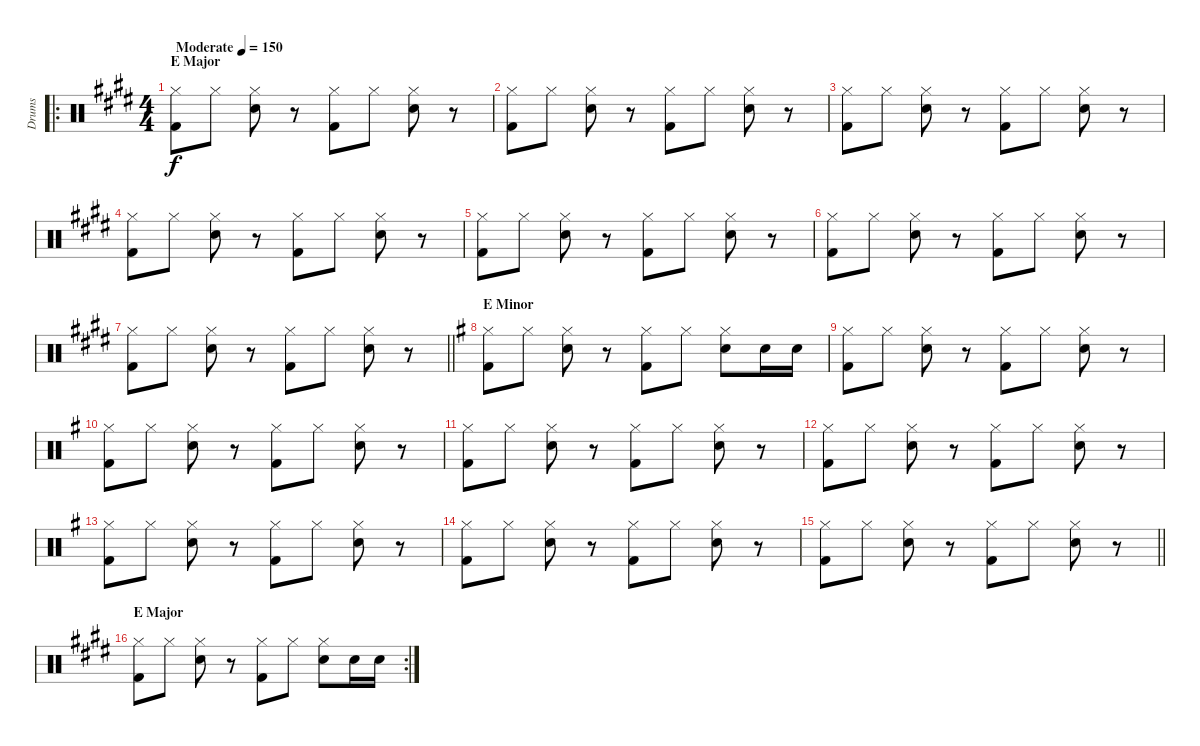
\track ("Drums" "Drums") {instrument percussion}
\staff {score}
\articulation defaults
\ro
\ts (4 4)
\section ("" "E Major")
\tempo (150 "Moderate")
\clef neutral
\ks e
("Hi-Hat (closed)" "Kick (hit) 2").8{dy f} "Hi-Hat (closed)".8 ("Hi-Hat (closed)" "Snare (hit) 2").8 r.8 ("Hi-Hat (closed)" "Kick (hit) 2").8 "Hi-Hat (closed)".8 ("Hi-Hat (closed)" "Snare (hit) 2").8 r.8 |
("Hi-Hat (closed)" "Kick (hit) 2").8 "Hi-Hat (closed)".8 ("Hi-Hat (closed)" "Snare (hit) 2").8 r.8 ("Hi-Hat (closed)" "Kick (hit) 2").8 "Hi-Hat (closed)".8 ("Hi-Hat (closed)" "Snare (hit) 2").8 r.8 |
("Hi-Hat (closed)" "Kick (hit) 2").8 "Hi-Hat (closed)".8 ("Hi-Hat (closed)" "Snare (hit) 2").8 r.8 ("Hi-Hat (closed)" "Kick (hit) 2").8 "Hi-Hat (closed)".8 ("Hi-Hat (closed)" "Snare (hit) 2").8 r.8 |
("Hi-Hat (closed)" "Kick (hit) 2").8 "Hi-Hat (closed)".8 ("Hi-Hat (closed)" "Snare (hit) 2").8 r.8 ("Hi-Hat (closed)" "Kick (hit) 2").8 "Hi-Hat (closed)".8 ("Hi-Hat (closed)" "Snare (hit) 2").8 r.8 |
("Hi-Hat (closed)" "Kick (hit) 2").8 "Hi-Hat (closed)".8 ("Hi-Hat (closed)" "Snare (hit) 2").8 r.8 ("Hi-Hat (closed)" "Kick (hit) 2").8 "Hi-Hat (closed)".8 ("Hi-Hat (closed)" "Snare (hit) 2").8 r.8 |
("Hi-Hat (closed)" "Kick (hit) 2").8 "Hi-Hat (closed)".8 ("Hi-Hat (closed)" "Snare (hit) 2").8 r.8 ("Hi-Hat (closed)" "Kick (hit) 2").8 "Hi-Hat (closed)".8 ("Hi-Hat (closed)" "Snare (hit) 2").8 r.8 |
\barLineRight lightlight
("Hi-Hat (closed)" "Kick (hit) 2").8 "Hi-Hat (closed)".8 ("Hi-Hat (closed)" "Snare (hit) 2").8 r.8 ("Hi-Hat (closed)" "Kick (hit) 2").8 "Hi-Hat (closed)".8 ("Hi-Hat (closed)" "Snare (hit) 2").8 r.8 |
\section ("" "E Minor")
\ks eminor
("Hi-Hat (closed)" "Kick (hit) 2").8 "Hi-Hat (closed)".8 ("Hi-Hat (closed)" "Snare (hit) 2").8 r.8 ("Hi-Hat (closed)" "Kick (hit) 2").8 "Hi-Hat (closed)".8 ("Hi-Hat (closed)" "Snare (hit) 2").8 "Snare (hit) 2".16 "Snare (hit) 2".16 |
("Hi-Hat (closed)" "Kick (hit) 2").8 "Hi-Hat (closed)".8 ("Hi-Hat (closed)" "Snare (hit) 2").8 r.8 ("Hi-Hat (closed)" "Kick (hit) 2").8 "Hi-Hat (closed)".8 ("Hi-Hat (closed)" "Snare (hit) 2").8 r.8 |
("Hi-Hat (closed)" "Kick (hit) 2").8 "Hi-Hat (closed)".8 ("Hi-Hat (closed)" "Snare (hit) 2").8 r.8 ("Hi-Hat (closed)" "Kick (hit) 2").8 "Hi-Hat (closed)".8 ("Hi-Hat (closed)" "Snare (hit) 2").8 r.8 |
("Hi-Hat (closed)" "Kick (hit) 2").8 "Hi-Hat (closed)".8 ("Hi-Hat (closed)" "Snare (hit) 2").8 r.8 ("Hi-Hat (closed)" "Kick (hit) 2").8 "Hi-Hat (closed)".8 ("Hi-Hat (closed)" "Snare (hit) 2").8 r.8 |
("Hi-Hat (closed)" "Kick (hit) 2").8 "Hi-Hat (closed)".8 ("Hi-Hat (closed)" "Snare (hit) 2").8 r.8 ("Hi-Hat (closed)" "Kick (hit) 2").8 "Hi-Hat (closed)".8 ("Hi-Hat (closed)" "Snare (hit) 2").8 r.8 |
("Hi-Hat (closed)" "Kick (hit) 2").8 "Hi-Hat (closed)".8 ("Hi-Hat (closed)" "Snare (hit) 2").8 r.8 ("Hi-Hat (closed)" "Kick (hit) 2").8 "Hi-Hat (closed)".8 ("Hi-Hat (closed)" "Snare (hit) 2").8 r.8 |
("Hi-Hat (closed)" "Kick (hit) 2").8 "Hi-Hat (closed)".8 ("Hi-Hat (closed)" "Snare (hit) 2").8 r.8 ("Hi-Hat (closed)" "Kick (hit) 2").8 "Hi-Hat (closed)".8 ("Hi-Hat (closed)" "Snare (hit) 2").8 r.8 |
\barLineRight lightlight
("Hi-Hat (closed)" "Kick (hit) 2").8 "Hi-Hat (closed)".8 ("Hi-Hat (closed)" "Snare (hit) 2").8 r.8 ("Hi-Hat (closed)" "Kick (hit) 2").8 "Hi-Hat (closed)".8 ("Hi-Hat (closed)" "Snare (hit) 2").8 r.8 |
\rc 2
\section ("" "E Major")
\ks e
("Hi-Hat (closed)" "Kick (hit) 2").8 "Hi-Hat (closed)".8 ("Hi-Hat (closed)" "Snare (hit) 2").8 r.8 ("Hi-Hat (closed)" "Kick (hit) 2").8 "Hi-Hat (closed)".8 ("Hi-Hat (closed)" "Snare (hit) 2").8 "Snare (hit) 2".16 "Snare (hit) 2".16
